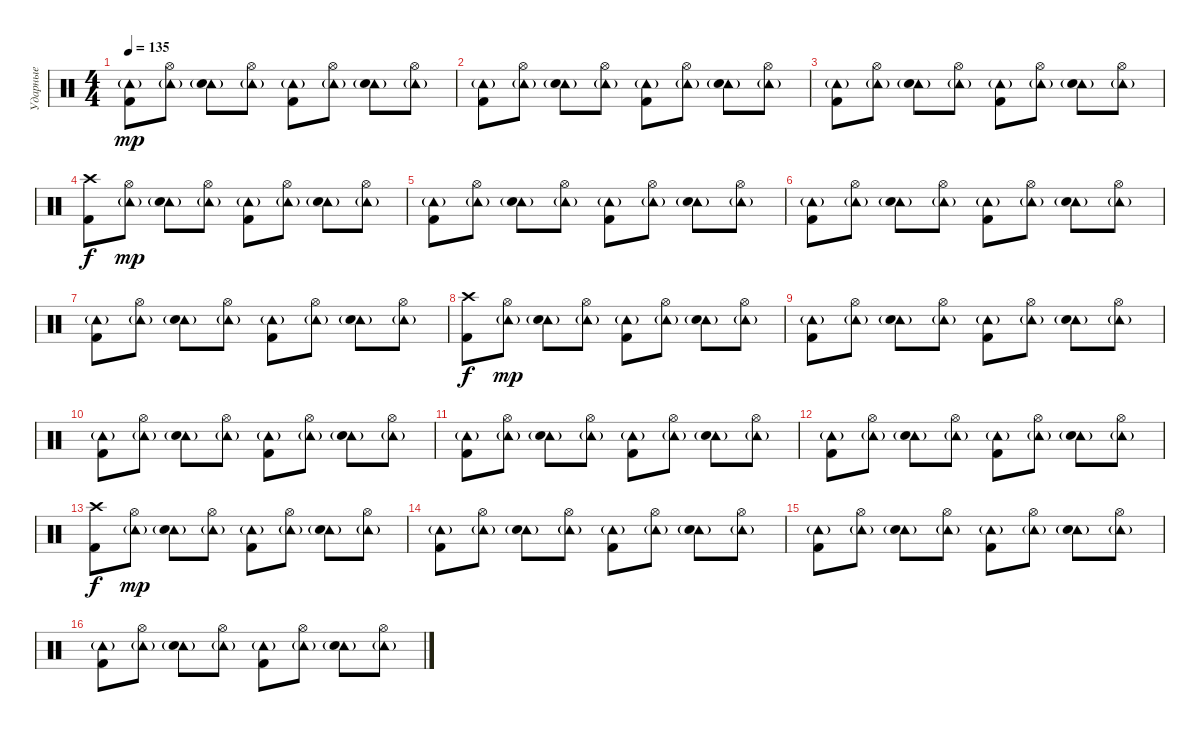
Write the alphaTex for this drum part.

\track ("Ударные" "Ударные") {instrument percussion}
\staff {score}
\articulation defaults
\ts (4 4)
\tempo 135
\clef neutral
\ks c
("Tambourine (hit)"{g} "Kick (hit) 2").8{dy mp} ("Tambourine (hit)"{g} "Hi-Hat (open)").8 ("Tambourine (hit)"{g} "Electric Snare (hit)").8 ("Tambourine (hit)"{g} "Hi-Hat (open)").8 ("Tambourine (hit)"{g} "Kick (hit) 2").8 ("Tambourine (hit)"{g} "Hi-Hat (open)").8 ("Tambourine (hit)"{g} "Electric Snare (hit)").8 ("Tambourine (hit)"{g} "Hi-Hat (open)").8 |
("Tambourine (hit)"{g} "Kick (hit) 2").8 ("Tambourine (hit)"{g} "Hi-Hat (open)").8 ("Tambourine (hit)"{g} "Electric Snare (hit)").8 ("Tambourine (hit)"{g} "Hi-Hat (open)").8 ("Tambourine (hit)"{g} "Kick (hit) 2").8 ("Tambourine (hit)"{g} "Hi-Hat (open)").8 ("Tambourine (hit)"{g} "Electric Snare (hit)").8 ("Tambourine (hit)"{g} "Hi-Hat (open)").8 |
("Tambourine (hit)"{g} "Kick (hit) 2").8 ("Tambourine (hit)"{g} "Hi-Hat (open)").8 ("Tambourine (hit)"{g} "Electric Snare (hit)").8 ("Tambourine (hit)"{g} "Hi-Hat (open)").8 ("Tambourine (hit)"{g} "Kick (hit) 2").8 ("Tambourine (hit)"{g} "Hi-Hat (open)").8 ("Tambourine (hit)"{g} "Electric Snare (hit)").8 ("Tambourine (hit)"{g} "Hi-Hat (open)").8 |
("Crash high (hit)" "Kick (hit) 2").8{dy f} ("Tambourine (hit)"{g} "Hi-Hat (open)").8{dy mp} ("Tambourine (hit)"{g} "Electric Snare (hit)").8 ("Tambourine (hit)"{g} "Hi-Hat (open)").8 ("Tambourine (hit)"{g} "Kick (hit) 2").8 ("Tambourine (hit)"{g} "Hi-Hat (open)").8 ("Tambourine (hit)"{g} "Electric Snare (hit)").8 ("Tambourine (hit)"{g} "Hi-Hat (open)").8 |
("Tambourine (hit)"{g} "Kick (hit) 2").8 ("Tambourine (hit)"{g} "Hi-Hat (open)").8 ("Tambourine (hit)"{g} "Electric Snare (hit)").8 ("Tambourine (hit)"{g} "Hi-Hat (open)").8 ("Tambourine (hit)"{g} "Kick (hit) 2").8 ("Tambourine (hit)"{g} "Hi-Hat (open)").8 ("Tambourine (hit)"{g} "Electric Snare (hit)").8 ("Tambourine (hit)"{g} "Hi-Hat (open)").8 |
("Tambourine (hit)"{g} "Kick (hit) 2").8 ("Tambourine (hit)"{g} "Hi-Hat (open)").8 ("Tambourine (hit)"{g} "Electric Snare (hit)").8 ("Tambourine (hit)"{g} "Hi-Hat (open)").8 ("Tambourine (hit)"{g} "Kick (hit) 2").8 ("Tambourine (hit)"{g} "Hi-Hat (open)").8 ("Tambourine (hit)"{g} "Electric Snare (hit)").8 ("Tambourine (hit)"{g} "Hi-Hat (open)").8 |
("Tambourine (hit)"{g} "Kick (hit) 2").8 ("Tambourine (hit)"{g} "Hi-Hat (open)").8 ("Tambourine (hit)"{g} "Electric Snare (hit)").8 ("Tambourine (hit)"{g} "Hi-Hat (open)").8 ("Tambourine (hit)"{g} "Kick (hit) 2").8 ("Tambourine (hit)"{g} "Hi-Hat (open)").8 ("Tambourine (hit)"{g} "Electric Snare (hit)").8 ("Tambourine (hit)"{g} "Hi-Hat (open)").8 |
("Crash high (hit)" "Kick (hit) 2").8{dy f} ("Tambourine (hit)"{g} "Hi-Hat (open)").8{dy mp} ("Tambourine (hit)"{g} "Electric Snare (hit)").8 ("Tambourine (hit)"{g} "Hi-Hat (open)").8 ("Tambourine (hit)"{g} "Kick (hit) 2").8 ("Tambourine (hit)"{g} "Hi-Hat (open)").8 ("Tambourine (hit)"{g} "Electric Snare (hit)").8 ("Tambourine (hit)"{g} "Hi-Hat (open)").8 |
("Tambourine (hit)"{g} "Kick (hit) 2").8 ("Tambourine (hit)"{g} "Hi-Hat (open)").8 ("Tambourine (hit)"{g} "Electric Snare (hit)").8 ("Tambourine (hit)"{g} "Hi-Hat (open)").8 ("Tambourine (hit)"{g} "Kick (hit) 2").8 ("Tambourine (hit)"{g} "Hi-Hat (open)").8 ("Tambourine (hit)"{g} "Electric Snare (hit)").8 ("Tambourine (hit)"{g} "Hi-Hat (open)").8 |
("Tambourine (hit)"{g} "Kick (hit) 2").8 ("Tambourine (hit)"{g} "Hi-Hat (open)").8 ("Tambourine (hit)"{g} "Electric Snare (hit)").8 ("Tambourine (hit)"{g} "Hi-Hat (open)").8 ("Tambourine (hit)"{g} "Kick (hit) 2").8 ("Tambourine (hit)"{g} "Hi-Hat (open)").8 ("Tambourine (hit)"{g} "Electric Snare (hit)").8 ("Tambourine (hit)"{g} "Hi-Hat (open)").8 |
("Tambourine (hit)"{g} "Kick (hit) 2").8 ("Tambourine (hit)"{g} "Hi-Hat (open)").8 ("Tambourine (hit)"{g} "Electric Snare (hit)").8 ("Tambourine (hit)"{g} "Hi-Hat (open)").8 ("Tambourine (hit)"{g} "Kick (hit) 2").8 ("Tambourine (hit)"{g} "Hi-Hat (open)").8 ("Tambourine (hit)"{g} "Electric Snare (hit)").8 ("Tambourine (hit)"{g} "Hi-Hat (open)").8 |
("Tambourine (hit)"{g} "Kick (hit) 2").8 ("Tambourine (hit)"{g} "Hi-Hat (open)").8 ("Tambourine (hit)"{g} "Electric Snare (hit)").8 ("Tambourine (hit)"{g} "Hi-Hat (open)").8 ("Tambourine (hit)"{g} "Kick (hit) 2").8 ("Tambourine (hit)"{g} "Hi-Hat (open)").8 ("Tambourine (hit)"{g} "Electric Snare (hit)").8 ("Tambourine (hit)"{g} "Hi-Hat (open)").8 |
("Crash high (hit)" "Kick (hit) 2").8{dy f} ("Tambourine (hit)"{g} "Hi-Hat (open)").8{dy mp} ("Tambourine (hit)"{g} "Electric Snare (hit)").8 ("Tambourine (hit)"{g} "Hi-Hat (open)").8 ("Tambourine (hit)"{g} "Kick (hit) 2").8 ("Tambourine (hit)"{g} "Hi-Hat (open)").8 ("Tambourine (hit)"{g} "Electric Snare (hit)").8 ("Tambourine (hit)"{g} "Hi-Hat (open)").8 |
("Tambourine (hit)"{g} "Kick (hit) 2").8 ("Tambourine (hit)"{g} "Hi-Hat (open)").8 ("Tambourine (hit)"{g} "Electric Snare (hit)").8 ("Tambourine (hit)"{g} "Hi-Hat (open)").8 ("Tambourine (hit)"{g} "Kick (hit) 2").8 ("Tambourine (hit)"{g} "Hi-Hat (open)").8 ("Tambourine (hit)"{g} "Electric Snare (hit)").8 ("Tambourine (hit)"{g} "Hi-Hat (open)").8 |
("Tambourine (hit)"{g} "Kick (hit) 2").8 ("Tambourine (hit)"{g} "Hi-Hat (open)").8 ("Tambourine (hit)"{g} "Electric Snare (hit)").8 ("Tambourine (hit)"{g} "Hi-Hat (open)").8 ("Tambourine (hit)"{g} "Kick (hit) 2").8 ("Tambourine (hit)"{g} "Hi-Hat (open)").8 ("Tambourine (hit)"{g} "Electric Snare (hit)").8 ("Tambourine (hit)"{g} "Hi-Hat (open)").8 |
("Tambourine (hit)"{g} "Kick (hit) 2").8 ("Tambourine (hit)"{g} "Hi-Hat (open)").8 ("Tambourine (hit)"{g} "Electric Snare (hit)").8 ("Tambourine (hit)"{g} "Hi-Hat (open)").8 ("Tambourine (hit)"{g} "Kick (hit) 2").8 ("Tambourine (hit)"{g} "Hi-Hat (open)").8 ("Tambourine (hit)"{g} "Electric Snare (hit)").8 ("Tambourine (hit)"{g} "Hi-Hat (open)").8
